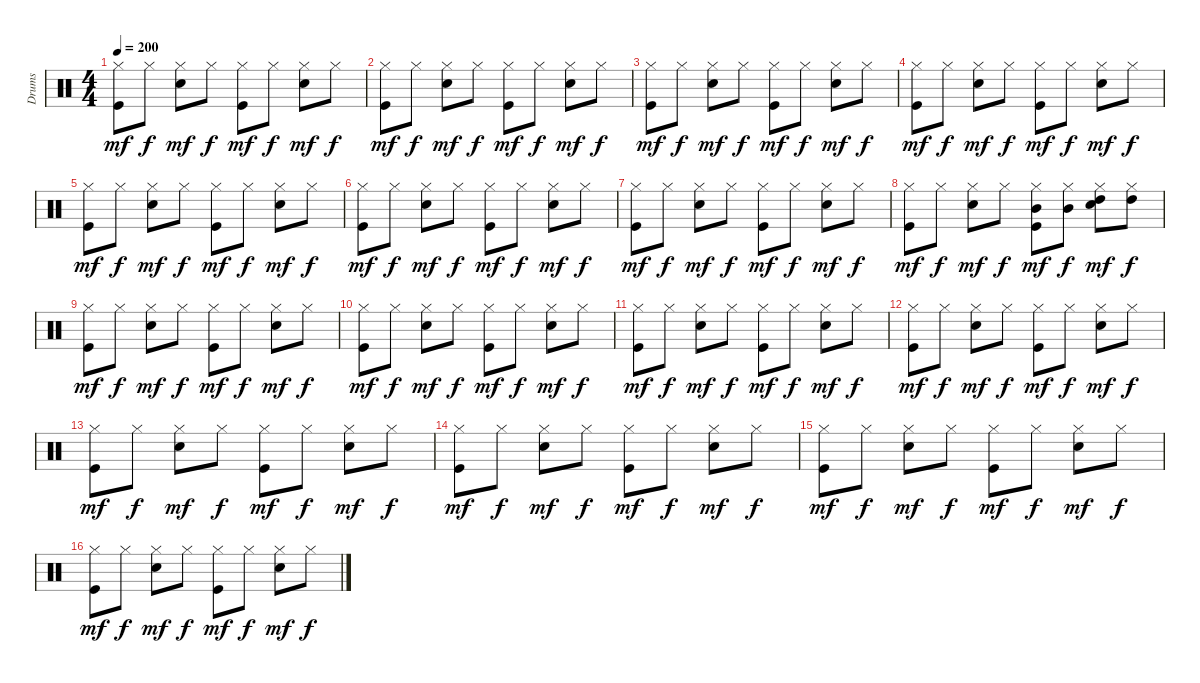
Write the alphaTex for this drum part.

\track ("Drums" "Drums") {instrument percussion}
\staff {score}
\articulation defaults
\ts (4 4)
\tempo 200
\clef neutral
\ks c
("Hi-Hat (closed)" "Kick (hit)").8{dy mf} "Hi-Hat (closed)".8{dy f} ("Hi-Hat (closed)" "Electric Snare (hit)").8{dy mf} "Hi-Hat (closed)".8{dy f} ("Hi-Hat (closed)" "Kick (hit)").8{dy mf} "Hi-Hat (closed)".8{dy f} ("Hi-Hat (closed)" "Electric Snare (hit)").8{dy mf} "Hi-Hat (closed)".8{dy f} |
("Hi-Hat (closed)" "Kick (hit)").8{dy mf} "Hi-Hat (closed)".8{dy f} ("Hi-Hat (closed)" "Electric Snare (hit)").8{dy mf} "Hi-Hat (closed)".8{dy f} ("Hi-Hat (closed)" "Kick (hit)").8{dy mf} "Hi-Hat (closed)".8{dy f} ("Hi-Hat (closed)" "Electric Snare (hit)").8{dy mf} "Hi-Hat (closed)".8{dy f} |
("Hi-Hat (closed)" "Kick (hit)").8{dy mf} "Hi-Hat (closed)".8{dy f} ("Hi-Hat (closed)" "Electric Snare (hit)").8{dy mf} "Hi-Hat (closed)".8{dy f} ("Hi-Hat (closed)" "Kick (hit)").8{dy mf} "Hi-Hat (closed)".8{dy f} ("Hi-Hat (closed)" "Electric Snare (hit)").8{dy mf} "Hi-Hat (closed)".8{dy f} |
("Hi-Hat (closed)" "Kick (hit)").8{dy mf} "Hi-Hat (closed)".8{dy f} ("Hi-Hat (closed)" "Electric Snare (hit)").8{dy mf} "Hi-Hat (closed)".8{dy f} ("Hi-Hat (closed)" "Kick (hit)").8{dy mf} "Hi-Hat (closed)".8{dy f} ("Hi-Hat (closed)" "Electric Snare (hit)").8{dy mf} "Hi-Hat (closed)".8{dy f} |
("Hi-Hat (closed)" "Kick (hit)").8{dy mf} "Hi-Hat (closed)".8{dy f} ("Hi-Hat (closed)" "Electric Snare (hit)").8{dy mf} "Hi-Hat (closed)".8{dy f} ("Hi-Hat (closed)" "Kick (hit)").8{dy mf} "Hi-Hat (closed)".8{dy f} ("Hi-Hat (closed)" "Electric Snare (hit)").8{dy mf} "Hi-Hat (closed)".8{dy f} |
("Hi-Hat (closed)" "Kick (hit)").8{dy mf} "Hi-Hat (closed)".8{dy f} ("Hi-Hat (closed)" "Electric Snare (hit)").8{dy mf} "Hi-Hat (closed)".8{dy f} ("Hi-Hat (closed)" "Kick (hit)").8{dy mf} "Hi-Hat (closed)".8{dy f} ("Hi-Hat (closed)" "Electric Snare (hit)").8{dy mf} "Hi-Hat (closed)".8{dy f} |
("Hi-Hat (closed)" "Kick (hit)").8{dy mf} "Hi-Hat (closed)".8{dy f} ("Hi-Hat (closed)" "Electric Snare (hit)").8{dy mf} "Hi-Hat (closed)".8{dy f} ("Hi-Hat (closed)" "Kick (hit)").8{dy mf} "Hi-Hat (closed)".8{dy f} ("Hi-Hat (closed)" "Electric Snare (hit)").8{dy mf} "Hi-Hat (closed)".8{dy f} |
("Hi-Hat (closed)" "Kick (hit)").8{dy mf} "Hi-Hat (closed)".8{dy f} ("Hi-Hat (closed)" "Electric Snare (hit)").8{dy mf} "Hi-Hat (closed)".8{dy f} ("Mid Tom (hit)" "Hi-Hat (closed)" "Kick (hit)").8{dy mf} ("Mid Tom (hit)" "Hi-Hat (closed)").8{dy f} ("High Tom (hit)" "Hi-Hat (closed)" "Electric Snare (hit)").8{dy mf} ("High Tom (hit)" "Hi-Hat (closed)").8{dy f} |
("Hi-Hat (closed)" "Kick (hit)").8{dy mf} "Hi-Hat (closed)".8{dy f} ("Hi-Hat (closed)" "Electric Snare (hit)").8{dy mf} "Hi-Hat (closed)".8{dy f} ("Hi-Hat (closed)" "Kick (hit)").8{dy mf} "Hi-Hat (closed)".8{dy f} ("Hi-Hat (closed)" "Electric Snare (hit)").8{dy mf} "Hi-Hat (closed)".8{dy f} |
("Hi-Hat (closed)" "Kick (hit)").8{dy mf} "Hi-Hat (closed)".8{dy f} ("Hi-Hat (closed)" "Electric Snare (hit)").8{dy mf} "Hi-Hat (closed)".8{dy f} ("Hi-Hat (closed)" "Kick (hit)").8{dy mf} "Hi-Hat (closed)".8{dy f} ("Hi-Hat (closed)" "Electric Snare (hit)").8{dy mf} "Hi-Hat (closed)".8{dy f} |
("Hi-Hat (closed)" "Kick (hit)").8{dy mf} "Hi-Hat (closed)".8{dy f} ("Hi-Hat (closed)" "Electric Snare (hit)").8{dy mf} "Hi-Hat (closed)".8{dy f} ("Hi-Hat (closed)" "Kick (hit)").8{dy mf} "Hi-Hat (closed)".8{dy f} ("Hi-Hat (closed)" "Electric Snare (hit)").8{dy mf} "Hi-Hat (closed)".8{dy f} |
("Hi-Hat (closed)" "Kick (hit)").8{dy mf} "Hi-Hat (closed)".8{dy f} ("Hi-Hat (closed)" "Electric Snare (hit)").8{dy mf} "Hi-Hat (closed)".8{dy f} ("Hi-Hat (closed)" "Kick (hit)").8{dy mf} "Hi-Hat (closed)".8{dy f} ("Hi-Hat (closed)" "Electric Snare (hit)").8{dy mf} "Hi-Hat (closed)".8{dy f} |
("Hi-Hat (closed)" "Kick (hit)").8{dy mf} "Hi-Hat (closed)".8{dy f} ("Hi-Hat (closed)" "Electric Snare (hit)").8{dy mf} "Hi-Hat (closed)".8{dy f} ("Hi-Hat (closed)" "Kick (hit)").8{dy mf} "Hi-Hat (closed)".8{dy f} ("Hi-Hat (closed)" "Electric Snare (hit)").8{dy mf} "Hi-Hat (closed)".8{dy f} |
("Hi-Hat (closed)" "Kick (hit)").8{dy mf} "Hi-Hat (closed)".8{dy f} ("Hi-Hat (closed)" "Electric Snare (hit)").8{dy mf} "Hi-Hat (closed)".8{dy f} ("Hi-Hat (closed)" "Kick (hit)").8{dy mf} "Hi-Hat (closed)".8{dy f} ("Hi-Hat (closed)" "Electric Snare (hit)").8{dy mf} "Hi-Hat (closed)".8{dy f} |
("Hi-Hat (closed)" "Kick (hit)").8{dy mf} "Hi-Hat (closed)".8{dy f} ("Hi-Hat (closed)" "Electric Snare (hit)").8{dy mf} "Hi-Hat (closed)".8{dy f} ("Hi-Hat (closed)" "Kick (hit)").8{dy mf} "Hi-Hat (closed)".8{dy f} ("Hi-Hat (closed)" "Electric Snare (hit)").8{dy mf} "Hi-Hat (closed)".8{dy f} |
("Hi-Hat (closed)" "Kick (hit)").8{dy mf} "Hi-Hat (closed)".8{dy f} ("Hi-Hat (closed)" "Electric Snare (hit)").8{dy mf} "Hi-Hat (closed)".8{dy f} ("Hi-Hat (closed)" "Kick (hit)").8{dy mf} "Hi-Hat (closed)".8{dy f} ("Hi-Hat (closed)" "Electric Snare (hit)").8{dy mf} "Hi-Hat (closed)".8{dy f}
